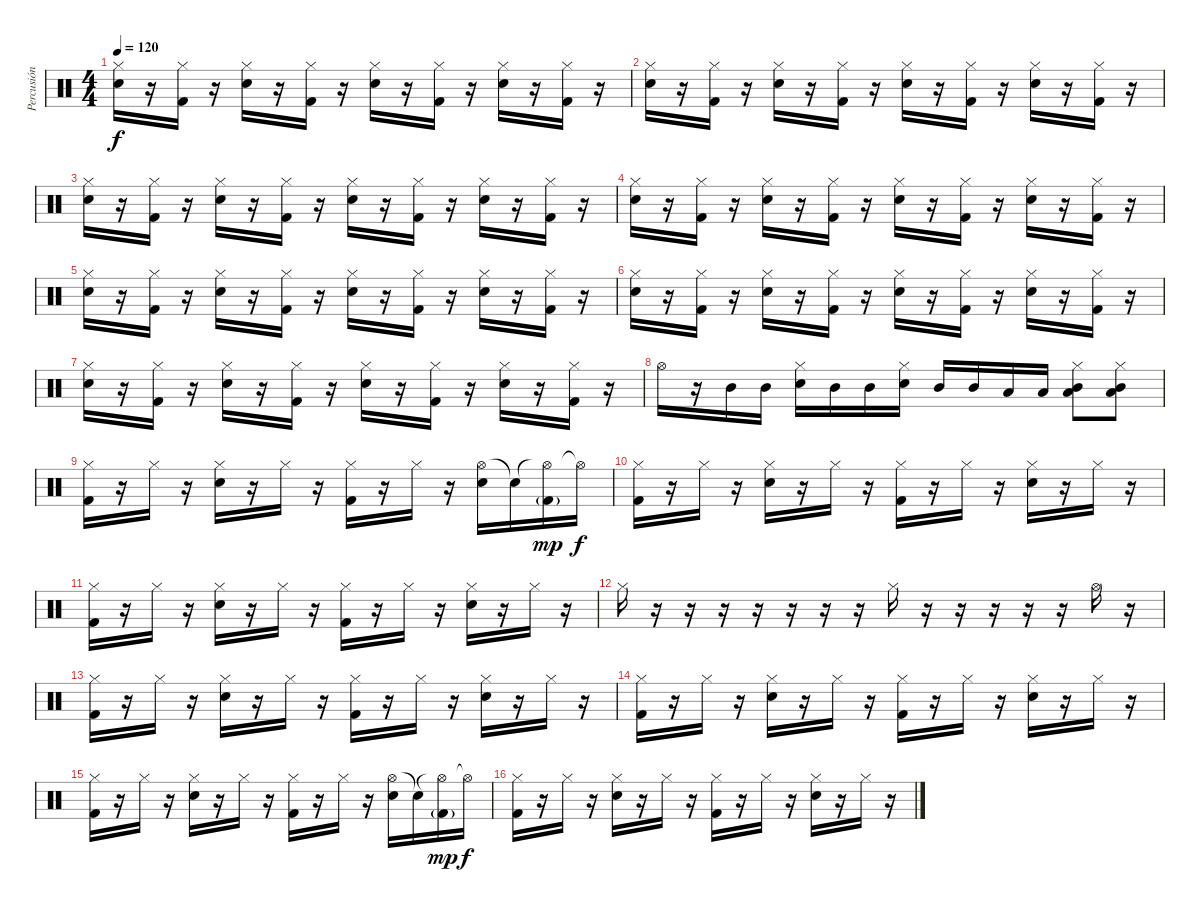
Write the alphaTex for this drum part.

\track ("Percusión" "Percusión") {instrument percussion}
\staff {score}
\articulation defaults
\ts (4 4)
\tempo 120
\clef neutral
\ks c
("Hi-Hat (closed)" "Snare (hit) 2").16{dy f} r.16 ("Hi-Hat (closed)" "Kick (hit) 2").16 r.16 ("Hi-Hat (closed)" "Snare (hit) 2").16 r.16 ("Hi-Hat (closed)" "Kick (hit) 2").16 r.16 ("Hi-Hat (closed)" "Snare (hit) 2").16 r.16 ("Hi-Hat (closed)" "Kick (hit) 2").16 r.16 ("Hi-Hat (closed)" "Snare (hit) 2").16 r.16 ("Hi-Hat (closed)" "Kick (hit) 2").16 r.16 |
("Hi-Hat (closed)" "Snare (hit) 2").16 r.16 ("Hi-Hat (closed)" "Kick (hit) 2").16 r.16 ("Hi-Hat (closed)" "Snare (hit) 2").16 r.16 ("Hi-Hat (closed)" "Kick (hit) 2").16 r.16 ("Hi-Hat (closed)" "Snare (hit) 2").16 r.16 ("Hi-Hat (closed)" "Kick (hit) 2").16 r.16 ("Hi-Hat (closed)" "Snare (hit) 2").16 r.16 ("Hi-Hat (closed)" "Kick (hit) 2").16 r.16 |
("Hi-Hat (closed)" "Snare (hit) 2").16 r.16 ("Hi-Hat (closed)" "Kick (hit) 2").16 r.16 ("Hi-Hat (closed)" "Snare (hit) 2").16 r.16 ("Hi-Hat (closed)" "Kick (hit) 2").16 r.16 ("Hi-Hat (closed)" "Snare (hit) 2").16 r.16 ("Hi-Hat (closed)" "Kick (hit) 2").16 r.16 ("Hi-Hat (closed)" "Snare (hit) 2").16 r.16 ("Hi-Hat (closed)" "Kick (hit) 2").16 r.16 |
("Hi-Hat (closed)" "Snare (hit) 2").16 r.16 ("Hi-Hat (closed)" "Kick (hit) 2").16 r.16 ("Hi-Hat (closed)" "Snare (hit) 2").16 r.16 ("Hi-Hat (closed)" "Kick (hit) 2").16 r.16 ("Hi-Hat (closed)" "Snare (hit) 2").16 r.16 ("Hi-Hat (closed)" "Kick (hit) 2").16 r.16 ("Hi-Hat (closed)" "Snare (hit) 2").16 r.16 ("Hi-Hat (closed)" "Kick (hit) 2").16 r.16 |
("Hi-Hat (closed)" "Snare (hit) 2").16 r.16 ("Hi-Hat (closed)" "Kick (hit) 2").16 r.16 ("Hi-Hat (closed)" "Snare (hit) 2").16 r.16 ("Hi-Hat (closed)" "Kick (hit) 2").16 r.16 ("Hi-Hat (closed)" "Snare (hit) 2").16 r.16 ("Hi-Hat (closed)" "Kick (hit) 2").16 r.16 ("Hi-Hat (closed)" "Snare (hit) 2").16 r.16 ("Hi-Hat (closed)" "Kick (hit) 2").16 r.16 |
("Hi-Hat (closed)" "Snare (hit) 2").16 r.16 ("Hi-Hat (closed)" "Kick (hit) 2").16 r.16 ("Hi-Hat (closed)" "Snare (hit) 2").16 r.16 ("Hi-Hat (closed)" "Kick (hit) 2").16 r.16 ("Hi-Hat (closed)" "Snare (hit) 2").16 r.16 ("Hi-Hat (closed)" "Kick (hit) 2").16 r.16 ("Hi-Hat (closed)" "Snare (hit) 2").16 r.16 ("Hi-Hat (closed)" "Kick (hit) 2").16 r.16 |
("Hi-Hat (closed)" "Snare (hit) 2").16 r.16 ("Hi-Hat (closed)" "Kick (hit) 2").16 r.16 ("Hi-Hat (closed)" "Snare (hit) 2").16 r.16 ("Hi-Hat (closed)" "Kick (hit) 2").16 r.16 ("Hi-Hat (closed)" "Snare (hit) 2").16 r.16 ("Hi-Hat (closed)" "Kick (hit) 2").16 r.16 ("Hi-Hat (closed)" "Snare (hit) 2").16 r.16 ("Hi-Hat (closed)" "Kick (hit) 2").16 r.16 |
"Hi-Hat (open)".16 r.16 "Mid Tom (hit)".16 "Mid Tom (hit)".16 ("Hi-Hat (closed)" "Snare (hit) 2").16 "Mid Tom (hit)".16 "Mid Tom (hit)".16 ("Hi-Hat (closed)" "Snare (hit) 2").16 "Mid Tom (hit)".16 "Mid Tom (hit)".16 "Low Tom (hit)".16 "Low Tom (hit)".16 ("Hi-Hat (closed)" "Low Tom (hit)" "Mid Tom (hit)").8 ("Hi-Hat (closed)" "Low Tom (hit)" "Mid Tom (hit)").8 |
("Hi-Hat (closed)" "Kick (hit) 2").16 r.16 "Hi-Hat (closed)".16 r.16 ("Hi-Hat (closed)" "Snare (hit) 2").16 r.16 "Hi-Hat (closed)".16 r.16 ("Hi-Hat (closed)" "Kick (hit) 2").16 r.16 "Hi-Hat (closed)".16 r.16 ("Hi-Hat (open)" "Snare (hit) 2").16 "Snare (hit)"{t}.16 ("Hi-Hat (open)"{t} "Kick (hit) 2"{g}).16{dy mp} "Hi-Hat (open)"{t}.16{dy f} |
("Hi-Hat (closed)" "Kick (hit) 2").16 r.16 "Hi-Hat (closed)".16 r.16 ("Hi-Hat (closed)" "Snare (hit) 2").16 r.16 "Hi-Hat (closed)".16 r.16 ("Hi-Hat (closed)" "Kick (hit) 2").16 r.16 "Hi-Hat (closed)".16 r.16 ("Hi-Hat (closed)" "Snare (hit) 2").16 r.16 "Hi-Hat (closed)".16 r.16 |
("Hi-Hat (closed)" "Kick (hit) 2").16 r.16 "Hi-Hat (closed)".16 r.16 ("Hi-Hat (closed)" "Snare (hit) 2").16 r.16 "Hi-Hat (closed)".16 r.16 ("Hi-Hat (closed)" "Kick (hit) 2").16 r.16 "Hi-Hat (closed)".16 r.16 ("Hi-Hat (closed)" "Snare (hit) 2").16 r.16 "Hi-Hat (closed)".16 r.16 |
"Hi-Hat (closed)".16 r.16 r.16 r.16 r.16 r.16 r.16 r.16 "Hi-Hat (closed)".16 r.16 r.16 r.16 r.16 r.16 "Hi-Hat (open)".16 r.16 |
("Hi-Hat (closed)" "Kick (hit) 2").16 r.16 "Hi-Hat (closed)".16 r.16 ("Hi-Hat (closed)" "Snare (hit) 2").16 r.16 "Hi-Hat (closed)".16 r.16 ("Hi-Hat (closed)" "Kick (hit) 2").16 r.16 "Hi-Hat (closed)".16 r.16 ("Hi-Hat (closed)" "Snare (hit) 2").16 r.16 "Hi-Hat (closed)".16 r.16 |
("Hi-Hat (closed)" "Kick (hit) 2").16 r.16 "Hi-Hat (closed)".16 r.16 ("Hi-Hat (closed)" "Snare (hit) 2").16 r.16 "Hi-Hat (closed)".16 r.16 ("Hi-Hat (closed)" "Kick (hit) 2").16 r.16 "Hi-Hat (closed)".16 r.16 ("Hi-Hat (closed)" "Snare (hit) 2").16 r.16 "Hi-Hat (closed)".16 r.16 |
("Hi-Hat (closed)" "Kick (hit) 2").16 r.16 "Hi-Hat (closed)".16 r.16 ("Hi-Hat (closed)" "Snare (hit) 2").16 r.16 "Hi-Hat (closed)".16 r.16 ("Hi-Hat (closed)" "Kick (hit) 2").16 r.16 "Hi-Hat (closed)".16 r.16 ("Hi-Hat (open)" "Snare (hit) 2").16 "Snare (hit)"{t}.16 ("Hi-Hat (open)"{t} "Kick (hit) 2"{g}).16{dy mp} "Hi-Hat (open)"{t}.16{dy f} |
("Hi-Hat (closed)" "Kick (hit) 2").16 r.16 "Hi-Hat (closed)".16 r.16 ("Hi-Hat (closed)" "Snare (hit) 2").16 r.16 "Hi-Hat (closed)".16 r.16 ("Hi-Hat (closed)" "Kick (hit) 2").16 r.16 "Hi-Hat (closed)".16 r.16 ("Hi-Hat (closed)" "Snare (hit) 2").16 r.16 "Hi-Hat (closed)".16 r.16
